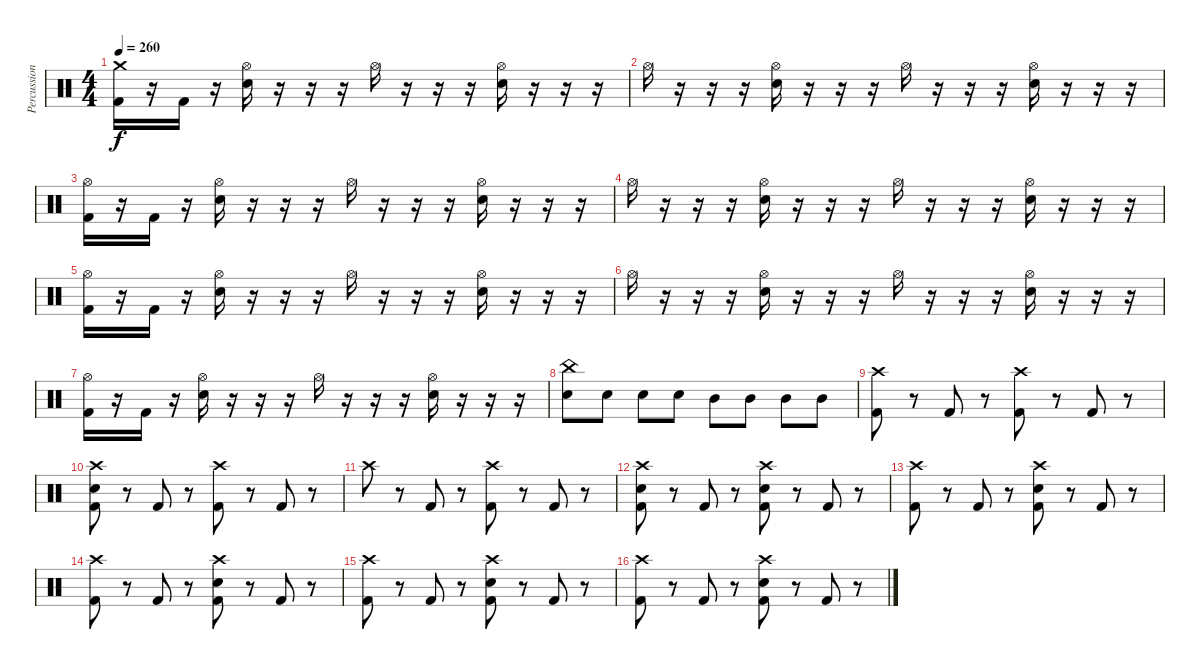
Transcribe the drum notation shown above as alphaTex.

\track ("Percussion" "Percussion") {instrument percussion}
\staff {score}
\articulation defaults
\ts (4 4)
\tempo 260
\clef neutral
\ks c
("Kick (hit) 2" "Crash medium (hit)").16{dy f} r.16 "Kick (hit) 2".16 r.16 ("Snare (hit) 2" "Hi-Hat (open)").16 r.16 r.16 r.16 "Hi-Hat (open)".16 r.16 r.16 r.16 ("Snare (hit) 2" "Hi-Hat (open)").16 r.16 r.16 r.16 |
"Hi-Hat (open)".16 r.16 r.16 r.16 ("Snare (hit) 2" "Hi-Hat (open)").16 r.16 r.16 r.16 "Hi-Hat (open)".16 r.16 r.16 r.16 ("Snare (hit) 2" "Hi-Hat (open)").16 r.16 r.16 r.16 |
("Kick (hit) 2" "Hi-Hat (open)").16 r.16 "Kick (hit) 2".16 r.16 ("Snare (hit) 2" "Hi-Hat (open)").16 r.16 r.16 r.16 "Hi-Hat (open)".16 r.16 r.16 r.16 ("Snare (hit) 2" "Hi-Hat (open)").16 r.16 r.16 r.16 |
"Hi-Hat (open)".16 r.16 r.16 r.16 ("Snare (hit) 2" "Hi-Hat (open)").16 r.16 r.16 r.16 "Hi-Hat (open)".16 r.16 r.16 r.16 ("Snare (hit) 2" "Hi-Hat (open)").16 r.16 r.16 r.16 |
("Kick (hit) 2" "Hi-Hat (open)").16 r.16 "Kick (hit) 2".16 r.16 ("Snare (hit) 2" "Hi-Hat (open)").16 r.16 r.16 r.16 "Hi-Hat (open)".16 r.16 r.16 r.16 ("Snare (hit) 2" "Hi-Hat (open)").16 r.16 r.16 r.16 |
"Hi-Hat (open)".16 r.16 r.16 r.16 ("Snare (hit) 2" "Hi-Hat (open)").16 r.16 r.16 r.16 "Hi-Hat (open)".16 r.16 r.16 r.16 ("Snare (hit) 2" "Hi-Hat (open)").16 r.16 r.16 r.16 |
("Kick (hit) 2" "Hi-Hat (open)").16 r.16 "Kick (hit) 2".16 r.16 ("Snare (hit) 2" "Hi-Hat (open)").16 r.16 r.16 r.16 "Hi-Hat (open)".16 r.16 r.16 r.16 ("Snare (hit) 2" "Hi-Hat (open)").16 r.16 r.16 r.16 |
("Snare (hit) 2" "China (hit)").8 "Snare (hit) 2".8 "Snare (hit) 2".8 "Snare (hit) 2".8 "Mid Tom (hit)".8 "Mid Tom (hit)".8 "Mid Tom (hit)".8 "Mid Tom (hit)".8 |
("Kick (hit) 2" "Crash high (hit)").8 r.8 "Kick (hit) 2".8 r.8 ("Kick (hit) 2" "Crash high (hit)").8 r.8 "Kick (hit) 2".8 r.8 |
("Kick (hit) 2" "Snare (hit) 2" "Crash high (hit)").8 r.8 "Kick (hit) 2".8 r.8 ("Kick (hit) 2" "Crash high (hit)").8 r.8 "Kick (hit) 2".8 r.8 |
"Crash high (hit)".8 r.8 "Kick (hit) 2".8 r.8 ("Kick (hit) 2" "Crash high (hit)").8 r.8 "Kick (hit) 2".8 r.8 |
("Kick (hit) 2" "Snare (hit) 2" "Crash high (hit)").8 r.8 "Kick (hit) 2".8 r.8 ("Kick (hit) 2" "Snare (hit) 2" "Crash high (hit)").8 r.8 "Kick (hit) 2".8 r.8 |
("Kick (hit) 2" "Crash high (hit)").8 r.8 "Kick (hit) 2".8 r.8 ("Kick (hit) 2" "Snare (hit) 2" "Crash high (hit)").8 r.8 "Kick (hit) 2".8 r.8 |
("Kick (hit) 2" "Crash high (hit)").8 r.8 "Kick (hit) 2".8 r.8 ("Kick (hit) 2" "Snare (hit) 2" "Crash high (hit)").8 r.8 "Kick (hit) 2".8 r.8 |
("Kick (hit) 2" "Crash high (hit)").8 r.8 "Kick (hit) 2".8 r.8 ("Kick (hit) 2" "Snare (hit) 2" "Crash high (hit)").8 r.8 "Kick (hit) 2".8 r.8 |
("Kick (hit) 2" "Crash high (hit)").8 r.8 "Kick (hit) 2".8 r.8 ("Kick (hit) 2" "Snare (hit) 2" "Crash high (hit)").8 r.8 "Kick (hit) 2".8 r.8
